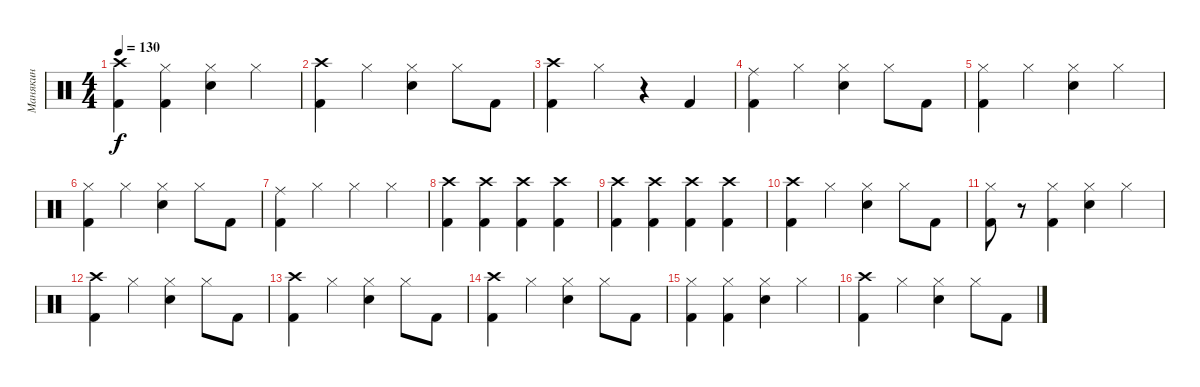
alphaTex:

\track ("Манякин" "Манякин") {instrument percussion}
\staff {score}
\articulation defaults
\ts (4 4)
\tempo 130
\clef neutral
\ks c
("Crash high (hit)" "Kick (hit) 2").4{dy f} ("Hi-Hat (closed)" "Kick (hit) 2").4 ("Hi-Hat (closed)" "Electric Snare (hit)").4 "Hi-Hat (closed)".4 |
("Crash high (hit)" "Kick (hit) 2").4 "Hi-Hat (closed)".4 ("Hi-Hat (closed)" "Electric Snare (hit)").4 "Hi-Hat (closed)".8 "Kick (hit) 2".8 |
("Crash high (hit)" "Kick (hit) 2").4 "Hi-Hat (closed)".4 r.4 "Kick (hit) 2".4 |
("Ride (middle)" "Kick (hit) 2").4 "Hi-Hat (closed)".4 ("Hi-Hat (closed)" "Electric Snare (hit)").4 "Hi-Hat (closed)".8 "Kick (hit) 2".8 |
("Hi-Hat (closed)" "Kick (hit) 2").4 "Hi-Hat (closed)".4 ("Hi-Hat (closed)" "Electric Snare (hit)").4 "Hi-Hat (closed)".4 |
("Hi-Hat (closed)" "Kick (hit) 2").4 "Hi-Hat (closed)".4 ("Hi-Hat (closed)" "Electric Snare (hit)").4 "Hi-Hat (closed)".8 "Kick (hit) 2".8 |
("Ride (middle)" "Kick (hit) 2").4 "Hi-Hat (closed)".4 "Hi-Hat (closed)".4 "Hi-Hat (closed)".4 |
("Crash high (hit)" "Kick (hit) 2").4 ("Kick (hit) 2" "Crash high (hit)").4 ("Kick (hit) 2" "Crash high (hit)").4 ("Kick (hit) 2" "Crash high (hit)").4 |
("Crash high (hit)" "Kick (hit) 2").4 ("Kick (hit) 2" "Crash high (hit)").4 ("Kick (hit) 2" "Crash high (hit)").4 ("Kick (hit) 2" "Crash high (hit)").4 |
("Crash high (hit)" "Kick (hit) 2").4 "Hi-Hat (closed)".4 ("Hi-Hat (closed)" "Electric Snare (hit)").4 "Hi-Hat (closed)".8 "Kick (hit) 2".8 |
("Hi-Hat (closed)" "Kick (hit) 2").8 r.8 ("Hi-Hat (closed)" "Kick (hit) 2").4 ("Hi-Hat (closed)" "Electric Snare (hit)").4 "Hi-Hat (closed)".4 |
("Crash high (hit)" "Kick (hit) 2").4 "Hi-Hat (closed)".4 ("Hi-Hat (closed)" "Electric Snare (hit)").4 "Hi-Hat (closed)".8 "Kick (hit) 2".8 |
("Crash high (hit)" "Kick (hit) 2").4 "Hi-Hat (closed)".4 ("Hi-Hat (closed)" "Electric Snare (hit)").4 "Hi-Hat (closed)".8 "Kick (hit) 2".8 |
("Crash high (hit)" "Kick (hit) 2").4 "Hi-Hat (closed)".4 ("Hi-Hat (closed)" "Electric Snare (hit)").4 "Hi-Hat (closed)".8 "Kick (hit) 2".8 |
("Hi-Hat (closed)" "Kick (hit) 2").4 ("Hi-Hat (closed)" "Kick (hit) 2").4 ("Hi-Hat (closed)" "Electric Snare (hit)").4 "Hi-Hat (closed)".4 |
("Crash high (hit)" "Kick (hit) 2").4 "Hi-Hat (closed)".4 ("Hi-Hat (closed)" "Electric Snare (hit)").4 "Hi-Hat (closed)".8 "Kick (hit) 2".8
